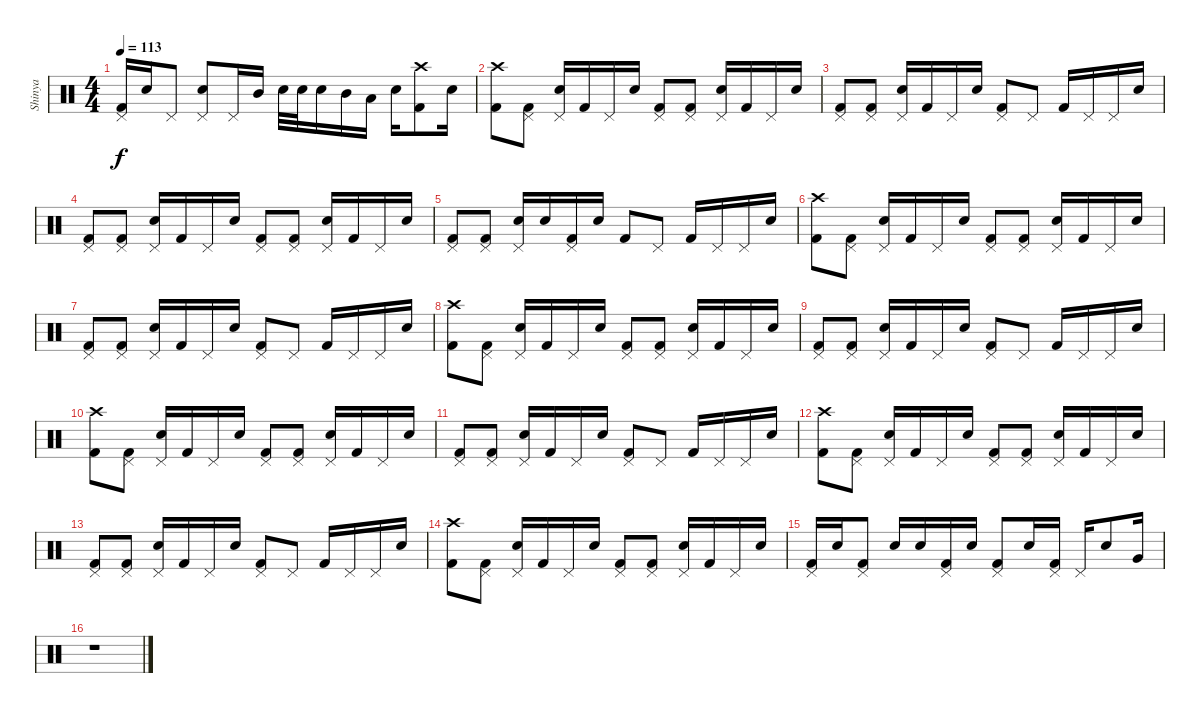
\track ("Shinya" "Shinya") {instrument percussion}
\staff {score}
\articulation defaults
\ts (4 4)
\tempo 113
\clef neutral
\ks c
("Pedal Hi-Hat (hit)" "Kick (hit) 2").16{dy f} "Electric Snare (hit)".16 "Pedal Hi-Hat (hit)".8 ("Pedal Hi-Hat (hit)" "Electric Snare (hit)").8 "Pedal Hi-Hat (hit)".16 "Mid Tom (hit)".16 "Electric Snare (hit)".32 "Electric Snare (hit)".32 "Electric Snare (hit)".16 "Mid Tom (hit)".16 "Low Tom (hit)".16 "Electric Snare (hit)".16 ("Crash high (hit)" "Kick (hit) 2").8 "Electric Snare (hit)".16 |
("Crash high (hit)" "Kick (hit) 2").8 ("Pedal Hi-Hat (hit)" "Kick (hit) 2").8 ("Pedal Hi-Hat (hit)" "Electric Snare (hit)").16 "Kick (hit) 2".16 "Pedal Hi-Hat (hit)".16 "Electric Snare (hit)".16 ("Pedal Hi-Hat (hit)" "Kick (hit) 2").8 ("Pedal Hi-Hat (hit)" "Kick (hit) 2").8 ("Pedal Hi-Hat (hit)" "Electric Snare (hit)").16 "Kick (hit) 2".16 "Pedal Hi-Hat (hit)".16 "Electric Snare (hit)".16 |
("Pedal Hi-Hat (hit)" "Kick (hit) 2").8 ("Pedal Hi-Hat (hit)" "Kick (hit) 2").8 ("Pedal Hi-Hat (hit)" "Electric Snare (hit)").16 "Kick (hit) 2".16 "Pedal Hi-Hat (hit)".16 "Electric Snare (hit)".16 ("Pedal Hi-Hat (hit)" "Kick (hit) 2").8 "Pedal Hi-Hat (hit)".8 "Kick (hit) 2".16 "Pedal Hi-Hat (hit)".16 "Pedal Hi-Hat (hit)".16 "Electric Snare (hit)".16 |
("Pedal Hi-Hat (hit)" "Kick (hit) 2").8 ("Pedal Hi-Hat (hit)" "Kick (hit) 2").8 ("Pedal Hi-Hat (hit)" "Electric Snare (hit)").16 "Kick (hit) 2".16 "Pedal Hi-Hat (hit)".16 "Electric Snare (hit)".16 ("Pedal Hi-Hat (hit)" "Kick (hit) 2").8 ("Pedal Hi-Hat (hit)" "Kick (hit) 2").8 ("Pedal Hi-Hat (hit)" "Electric Snare (hit)").16 "Kick (hit) 2".16 "Pedal Hi-Hat (hit)".16 "Electric Snare (hit)".16 |
("Pedal Hi-Hat (hit)" "Kick (hit) 2").8 ("Pedal Hi-Hat (hit)" "Kick (hit) 2").8 ("Pedal Hi-Hat (hit)" "Electric Snare (hit)").16 "Electric Snare (hit)".16 ("Pedal Hi-Hat (hit)" "Kick (hit) 2").16 "Electric Snare (hit)".16 "Kick (hit) 2".8 "Pedal Hi-Hat (hit)".8 "Kick (hit) 2".16 "Pedal Hi-Hat (hit)".16 "Pedal Hi-Hat (hit)".16 "Electric Snare (hit)".16 |
("Crash high (hit)" "Kick (hit) 2").8 ("Pedal Hi-Hat (hit)" "Kick (hit) 2").8 ("Pedal Hi-Hat (hit)" "Electric Snare (hit)").16 "Kick (hit) 2".16 "Pedal Hi-Hat (hit)".16 "Electric Snare (hit)".16 ("Pedal Hi-Hat (hit)" "Kick (hit) 2").8 ("Pedal Hi-Hat (hit)" "Kick (hit) 2").8 ("Pedal Hi-Hat (hit)" "Electric Snare (hit)").16 "Kick (hit) 2".16 "Pedal Hi-Hat (hit)".16 "Electric Snare (hit)".16 |
("Pedal Hi-Hat (hit)" "Kick (hit) 2").8 ("Pedal Hi-Hat (hit)" "Kick (hit) 2").8 ("Pedal Hi-Hat (hit)" "Electric Snare (hit)").16 "Kick (hit) 2".16 "Pedal Hi-Hat (hit)".16 "Electric Snare (hit)".16 ("Pedal Hi-Hat (hit)" "Kick (hit) 2").8 "Pedal Hi-Hat (hit)".8 "Kick (hit) 2".16 "Pedal Hi-Hat (hit)".16 "Pedal Hi-Hat (hit)".16 "Electric Snare (hit)".16 |
("Crash high (hit)" "Kick (hit) 2").8 ("Pedal Hi-Hat (hit)" "Kick (hit) 2").8 ("Pedal Hi-Hat (hit)" "Electric Snare (hit)").16 "Kick (hit) 2".16 "Pedal Hi-Hat (hit)".16 "Electric Snare (hit)".16 ("Pedal Hi-Hat (hit)" "Kick (hit) 2").8 ("Pedal Hi-Hat (hit)" "Kick (hit) 2").8 ("Pedal Hi-Hat (hit)" "Electric Snare (hit)").16 "Kick (hit) 2".16 "Pedal Hi-Hat (hit)".16 "Electric Snare (hit)".16 |
("Pedal Hi-Hat (hit)" "Kick (hit) 2").8 ("Pedal Hi-Hat (hit)" "Kick (hit) 2").8 ("Pedal Hi-Hat (hit)" "Electric Snare (hit)").16 "Kick (hit) 2".16 "Pedal Hi-Hat (hit)".16 "Electric Snare (hit)".16 ("Pedal Hi-Hat (hit)" "Kick (hit) 2").8 "Pedal Hi-Hat (hit)".8 "Kick (hit) 2".16 "Pedal Hi-Hat (hit)".16 "Pedal Hi-Hat (hit)".16 "Electric Snare (hit)".16 |
("Crash high (hit)" "Kick (hit) 2").8 ("Pedal Hi-Hat (hit)" "Kick (hit) 2").8 ("Pedal Hi-Hat (hit)" "Electric Snare (hit)").16 "Kick (hit) 2".16 "Pedal Hi-Hat (hit)".16 "Electric Snare (hit)".16 ("Pedal Hi-Hat (hit)" "Kick (hit) 2").8 ("Pedal Hi-Hat (hit)" "Kick (hit) 2").8 ("Pedal Hi-Hat (hit)" "Electric Snare (hit)").16 "Kick (hit) 2".16 "Pedal Hi-Hat (hit)".16 "Electric Snare (hit)".16 |
("Pedal Hi-Hat (hit)" "Kick (hit) 2").8 ("Pedal Hi-Hat (hit)" "Kick (hit) 2").8 ("Pedal Hi-Hat (hit)" "Electric Snare (hit)").16 "Kick (hit) 2".16 "Pedal Hi-Hat (hit)".16 "Electric Snare (hit)".16 ("Pedal Hi-Hat (hit)" "Kick (hit) 2").8 "Pedal Hi-Hat (hit)".8 "Kick (hit) 2".16 "Pedal Hi-Hat (hit)".16 "Pedal Hi-Hat (hit)".16 "Electric Snare (hit)".16 |
("Crash high (hit)" "Kick (hit) 2").8 ("Pedal Hi-Hat (hit)" "Kick (hit) 2").8 ("Pedal Hi-Hat (hit)" "Electric Snare (hit)").16 "Kick (hit) 2".16 "Pedal Hi-Hat (hit)".16 "Electric Snare (hit)".16 ("Pedal Hi-Hat (hit)" "Kick (hit) 2").8 ("Pedal Hi-Hat (hit)" "Kick (hit) 2").8 ("Pedal Hi-Hat (hit)" "Electric Snare (hit)").16 "Kick (hit) 2".16 "Pedal Hi-Hat (hit)".16 "Electric Snare (hit)".16 |
("Pedal Hi-Hat (hit)" "Kick (hit) 2").8 ("Pedal Hi-Hat (hit)" "Kick (hit) 2").8 ("Pedal Hi-Hat (hit)" "Electric Snare (hit)").16 "Kick (hit) 2".16 "Pedal Hi-Hat (hit)".16 "Electric Snare (hit)".16 ("Pedal Hi-Hat (hit)" "Kick (hit) 2").8 "Pedal Hi-Hat (hit)".8 "Kick (hit) 2".16 "Pedal Hi-Hat (hit)".16 "Pedal Hi-Hat (hit)".16 "Electric Snare (hit)".16 |
("Crash high (hit)" "Kick (hit) 2").8 ("Pedal Hi-Hat (hit)" "Kick (hit) 2").8 ("Pedal Hi-Hat (hit)" "Electric Snare (hit)").16 "Kick (hit) 2".16 "Pedal Hi-Hat (hit)".16 "Electric Snare (hit)".16 ("Pedal Hi-Hat (hit)" "Kick (hit) 2").8 ("Pedal Hi-Hat (hit)" "Kick (hit) 2").8 ("Pedal Hi-Hat (hit)" "Electric Snare (hit)").16 "Kick (hit) 2".16 "Pedal Hi-Hat (hit)".16 "Electric Snare (hit)".16 |
("Pedal Hi-Hat (hit)" "Kick (hit) 2").16 "Electric Snare (hit)".16 ("Pedal Hi-Hat (hit)" "Kick (hit) 2").8 "Electric Snare (hit)".16 "Electric Snare (hit)".16 ("Pedal Hi-Hat (hit)" "Kick (hit) 2").16 "Electric Snare (hit)".16 ("Pedal Hi-Hat (hit)" "Kick (hit) 2").8 "Electric Snare (hit)".16 ("Pedal Hi-Hat (hit)" "Kick (hit) 2").16 "Pedal Hi-Hat (hit)".16 "Electric Snare (hit)".8 "Very Low Tom (hit)".16 |
r.1
